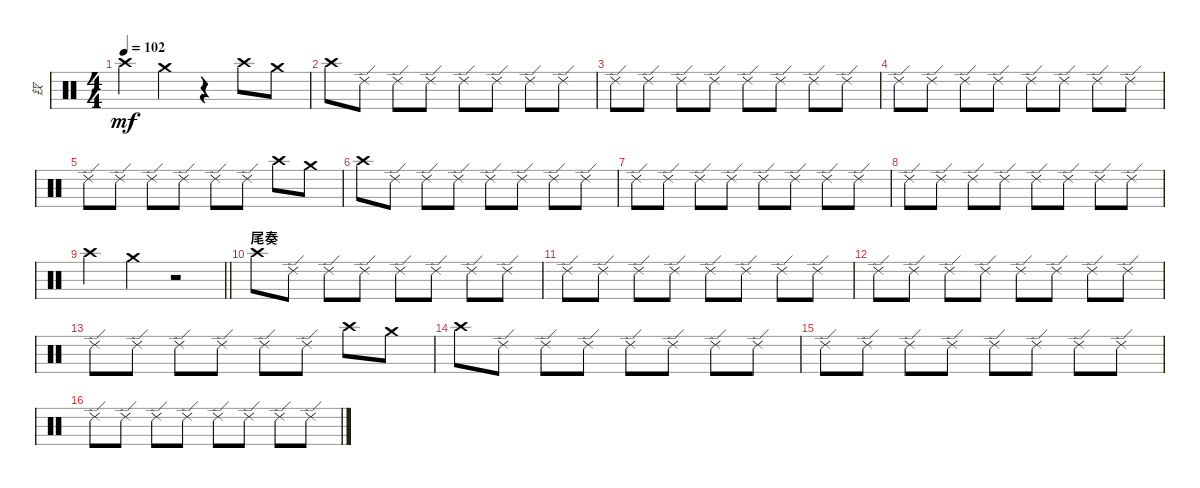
\track ("钗" "钗") {instrument percussion}
\staff {score}
\articulation defaults
\ts (4 4)
\tempo 102
\clef neutral
\ks c "Crash high (hit)".4{dy mf} "Crash medium (hit)".4
r.4 "Crash high (hit)".8 "Crash medium (hit)".8 |
"Crash high (hit)".8 "Ride (edge) 2".8 "Ride (edge) 2".8 "Ride (edge) 2".8 "Ride (edge) 2".8 "Ride (edge) 2".8 "Ride (edge) 2".8 "Ride (edge) 2".8 |
"Ride (edge) 2".8 "Ride (edge) 2".8 "Ride (edge) 2".8 "Ride (edge) 2".8 "Ride (edge) 2".8 "Ride (edge) 2".8 "Ride (edge) 2".8 "Ride (edge) 2".8 |
"Ride (edge) 2".8 "Ride (edge) 2".8 "Ride (edge) 2".8 "Ride (edge) 2".8 "Ride (edge) 2".8 "Ride (edge) 2".8 "Ride (edge) 2".8 "Ride (edge) 2".8 |
"Ride (edge) 2".8 "Ride (edge) 2".8 "Ride (edge) 2".8 "Ride (edge) 2".8 "Ride (edge) 2".8 "Ride (edge) 2".8 "Crash high (hit)".8 "Crash medium (hit)".8 |
"Crash high (hit)".8 "Ride (edge) 2".8 "Ride (edge) 2".8 "Ride (edge) 2".8 "Ride (edge) 2".8 "Ride (edge) 2".8 "Ride (edge) 2".8 "Ride (edge) 2".8 |
"Ride (edge) 2".8 "Ride (edge) 2".8 "Ride (edge) 2".8 "Ride (edge) 2".8 "Ride (edge) 2".8 "Ride (edge) 2".8 "Ride (edge) 2".8 "Ride (edge) 2".8 |
"Ride (edge) 2".8 "Ride (edge) 2".8 "Ride (edge) 2".8 "Ride (edge) 2".8 "Ride (edge) 2".8 "Ride (edge) 2".8 "Ride (edge) 2".8 "Ride (edge) 2".8 |
\barLineRight lightlight "Crash high (hit)".4 "Crash medium (hit)".4
r.2 |
\section ("" "尾奏")
"Crash high (hit)".8 "Ride (edge) 2".8 "Ride (edge) 2".8 "Ride (edge) 2".8 "Ride (edge) 2".8 "Ride (edge) 2".8 "Ride (edge) 2".8 "Ride (edge) 2".8 |
"Ride (edge) 2".8 "Ride (edge) 2".8 "Ride (edge) 2".8 "Ride (edge) 2".8 "Ride (edge) 2".8 "Ride (edge) 2".8 "Ride (edge) 2".8 "Ride (edge) 2".8 |
"Ride (edge) 2".8 "Ride (edge) 2".8 "Ride (edge) 2".8 "Ride (edge) 2".8 "Ride (edge) 2".8 "Ride (edge) 2".8 "Ride (edge) 2".8 "Ride (edge) 2".8 |
"Ride (edge) 2".8 "Ride (edge) 2".8 "Ride (edge) 2".8 "Ride (edge) 2".8 "Ride (edge) 2".8 "Ride (edge) 2".8 "Crash high (hit)".8 "Crash medium (hit)".8 |
"Crash high (hit)".8 "Ride (edge) 2".8 "Ride (edge) 2".8 "Ride (edge) 2".8 "Ride (edge) 2".8 "Ride (edge) 2".8 "Ride (edge) 2".8 "Ride (edge) 2".8 |
"Ride (edge) 2".8 "Ride (edge) 2".8 "Ride (edge) 2".8 "Ride (edge) 2".8 "Ride (edge) 2".8 "Ride (edge) 2".8 "Ride (edge) 2".8 "Ride (edge) 2".8 |
"Ride (edge) 2".8 "Ride (edge) 2".8 "Ride (edge) 2".8 "Ride (edge) 2".8 "Ride (edge) 2".8 "Ride (edge) 2".8 "Ride (edge) 2".8 "Ride (edge) 2".8
